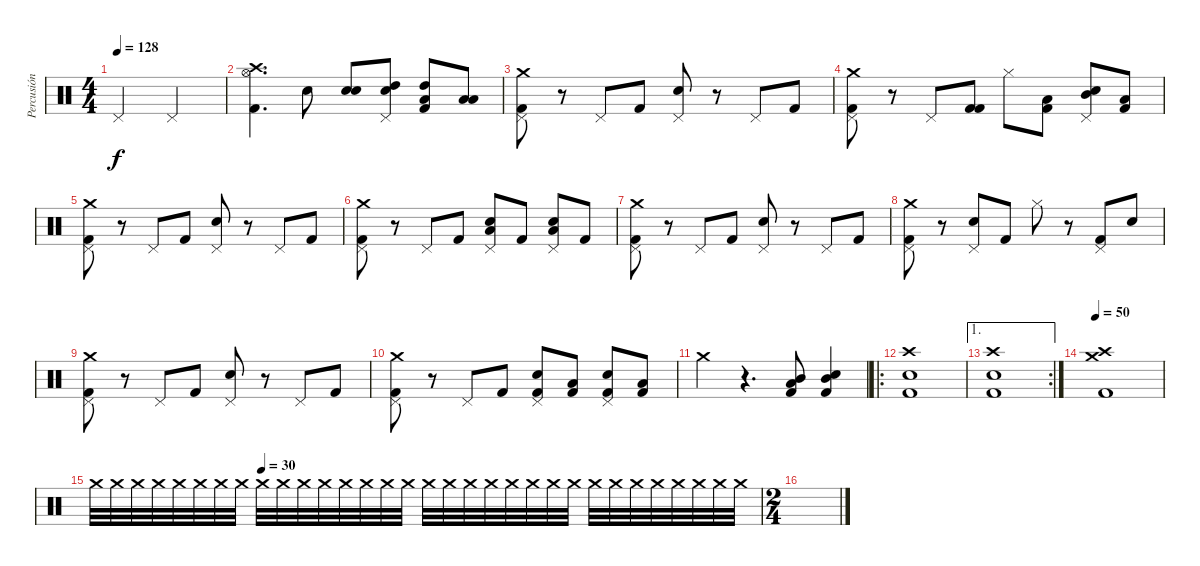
\track ("Percusión" "Percusión") {instrument percussion}
\staff {score}
\articulation defaults
\ts (4 4)
\tempo 128
\clef neutral
\ks c "Pedal Hi-Hat (hit)".2{dy f} "Pedal Hi-Hat (hit)".2
|
("Crash high (hit)" "Hi-Hat (open)" "Kick (hit) 2").4{d} "Snare (hit) 2".8 ("Snare (hit) 2" "Electric Snare (hit)").8 ("Pedal Hi-Hat (hit)" "High Tom (hit)" "Snare (hit) 2").8 ("High Tom (hit)" "Low Tom (hit)" "Kick (hit) 2").8 ("Low Tom (hit)" "Low Floor Tom (hit)").8 |
("Pedal Hi-Hat (hit)" "Crash medium (hit)" "Kick (hit) 2").8 r.8 "Pedal Hi-Hat (hit)".8 "Kick (hit) 2".8 ("Pedal Hi-Hat (hit)" "Snare (hit) 2").8 r.8 "Pedal Hi-Hat (hit)".8 "Kick (hit) 2".8 |
("Pedal Hi-Hat (hit)" "Crash medium (hit)" "Kick (hit) 2").8 r.8 "Pedal Hi-Hat (hit)".8 ("Kick (hit) 2" "Kick (hit) 2").8 "Hi-Hat (closed)".8 ("Kick (hit) 2" "Low Tom (hit)").8 ("Pedal Hi-Hat (hit)" "Snare (hit) 2" "Mid Tom (hit)").8 ("Kick (hit) 2" "Low Tom (hit)").8 |
("Pedal Hi-Hat (hit)" "Crash medium (hit)" "Kick (hit) 2").8 r.8 "Pedal Hi-Hat (hit)".8 "Kick (hit) 2".8 ("Pedal Hi-Hat (hit)" "Snare (hit) 2").8 r.8 "Pedal Hi-Hat (hit)".8 "Kick (hit) 2".8 |
("Pedal Hi-Hat (hit)" "Crash medium (hit)" "Kick (hit) 2").8 r.8 "Pedal Hi-Hat (hit)".8 "Kick (hit) 2".8 ("Pedal Hi-Hat (hit)" "Snare (hit) 2" "Low Tom (hit)").8 "Kick (hit) 2".8 ("Pedal Hi-Hat (hit)" "Snare (hit) 2" "Low Tom (hit)").8 "Kick (hit) 2".8 |
("Pedal Hi-Hat (hit)" "Crash medium (hit)" "Kick (hit) 2").8 r.8 "Pedal Hi-Hat (hit)".8 "Kick (hit) 2".8 ("Pedal Hi-Hat (hit)" "Snare (hit) 2").8 r.8 "Pedal Hi-Hat (hit)".8 "Kick (hit) 2".8 |
("Pedal Hi-Hat (hit)" "Crash medium (hit)" "Kick (hit) 2").8 r.8 ("Pedal Hi-Hat (hit)" "Snare (hit) 2").8 "Kick (hit) 2".8 "Hi-Hat (closed)".8 r.8 ("Pedal Hi-Hat (hit)" "Kick (hit) 2").8 "Snare (hit) 2".8 |
("Pedal Hi-Hat (hit)" "Crash medium (hit)" "Kick (hit) 2").8 r.8 "Pedal Hi-Hat (hit)".8 "Kick (hit) 2".8 ("Pedal Hi-Hat (hit)" "Snare (hit) 2").8 r.8 "Pedal Hi-Hat (hit)".8 "Kick (hit) 2".8 |
("Pedal Hi-Hat (hit)" "Crash medium (hit)" "Kick (hit) 2").8 r.8 "Pedal Hi-Hat (hit)".8 "Kick (hit) 2".8 ("Pedal Hi-Hat (hit)" "Snare (hit) 2" "Kick (hit) 2").8 ("Low Tom (hit)" "Kick (hit) 2").8 ("Pedal Hi-Hat (hit)" "Snare (hit) 2" "Kick (hit) 2").8 ("Low Tom (hit)" "Kick (hit) 2").8 |
"Crash medium (hit)".4 r.4{d} ("Mid Tom (hit)" "Low Tom (hit)" "Kick (hit) 2").8 ("Snare (hit) 2" "Mid Tom (hit)" "Kick (hit) 2").4 |
\ro
("Snare (hit) 2" "Crash high (hit)" "Kick (hit) 2").1 |
\ae 1
\rc 2
("Snare (hit) 2" "Crash high (hit)" "Kick (hit) 2").1 |
\tempo 50
("Crash medium (hit)" "Crash high (hit)" "Kick (hit) 2").1 |
\tempo (30 0.25)
"Crash medium (hit)".32{volume 3} "Crash medium (hit)".32 "Crash medium (hit)".32 "Crash medium (hit)".32 "Crash medium (hit)".32 "Crash medium (hit)".32 "Crash medium (hit)".32 "Crash medium (hit)".32 "Crash medium (hit)".32{volume 16} "Crash medium (hit)".32 "Crash medium (hit)".32 "Crash medium (hit)".32 "Crash medium (hit)".32 "Crash medium (hit)".32 "Crash medium (hit)".32 "Crash medium (hit)".32 "Crash medium (hit)".32 "Crash medium (hit)".32 "Crash medium (hit)".32 "Crash medium (hit)".32 "Crash medium (hit)".32 "Crash medium (hit)".32 "Crash medium (hit)".32 "Crash medium (hit)".32 "Crash medium (hit)".32 "Crash medium (hit)".32 "Crash medium (hit)".32 "Crash medium (hit)".32 "Crash medium (hit)".32 "Crash medium (hit)".32 "Crash medium (hit)".32 "Crash medium (hit)".32 |
\ts (2 4)
